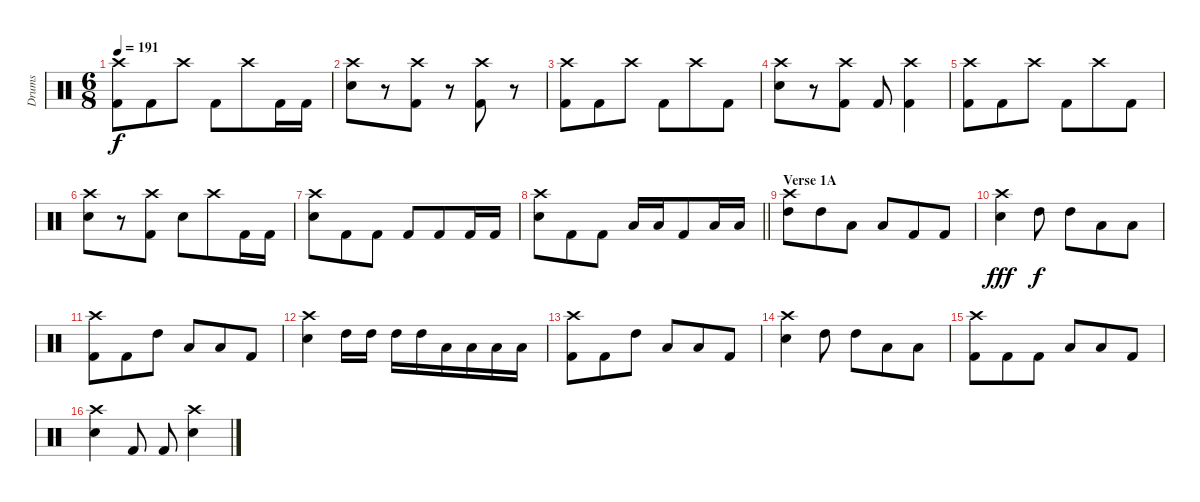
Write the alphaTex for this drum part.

\track ("Drums" "Drums") {instrument percussion}
\staff {score}
\articulation defaults
\ts (6 8)
\tempo 191
\clef neutral
\ks c
("Crash high (hit)" "Kick (hit) 2").8{dy f} "Kick (hit) 2".8 "Crash high (hit)".8 "Kick (hit) 2".8 "Crash high (hit)".8 "Kick (hit) 2".16 "Kick (hit) 2".16 |
("Crash high (hit)" "Snare (hit) 2").8 r.8 ("Crash high (hit)" "Kick (hit) 2").8 r.8 ("Crash high (hit)" "Kick (hit) 2").8 r.8 |
("Crash high (hit)" "Kick (hit) 2").8 "Kick (hit) 2".8 "Crash high (hit)".8 "Kick (hit) 2".8 "Crash high (hit)".8 "Kick (hit) 2".8 |
("Crash high (hit)" "Snare (hit) 2").8 r.8 ("Crash high (hit)" "Kick (hit) 2").8 "Kick (hit) 2".8 ("Crash high (hit)" "Kick (hit) 2").4 |
("Crash high (hit)" "Kick (hit) 2").8 "Kick (hit) 2".8 "Crash high (hit)".8 "Kick (hit) 2".8 "Crash high (hit)".8 "Kick (hit) 2".8 |
("Crash high (hit)" "Snare (hit) 2").8 r.8 ("Crash high (hit)" "Kick (hit) 2").8 "Snare (hit) 2".8 "Crash high (hit)".8 "Kick (hit) 2".16 "Kick (hit) 2".16 |
("Crash high (hit)" "Snare (hit) 2").8 "Kick (hit) 2".8 "Kick (hit) 2".8 "Kick (hit) 2".8 "Kick (hit) 2".8 "Kick (hit) 2".16 "Kick (hit) 2".16 |
\barLineRight lightlight
("Crash high (hit)" "Snare (hit) 2").8 "Kick (hit) 2".8 "Kick (hit) 2".8 "Low Tom (hit)".16 "Low Tom (hit)".16 "Kick (hit) 2".8 "Low Tom (hit)".16 "Low Tom (hit)".16 |
\section ("" "Verse 1A")
("Crash high (hit)" "High Tom (hit)").8 "High Tom (hit)".8 "Low Tom (hit)".8 "Low Floor Tom (hit)".8 "Kick (hit) 2".8 "Kick (hit) 2".8 |
("Crash high (hit)" "Snare (hit) 2").4{dy fff} "High Tom (hit)".8{dy f} "High Tom (hit)".8 "Low Tom (hit)".8 "Low Tom (hit)".8 |
("Crash high (hit)" "Kick (hit) 2").8 "Kick (hit) 2".8 "High Tom (hit)".8 "Low Tom (hit)".8 "Low Floor Tom (hit)".8 "Kick (hit) 2".8 |
("Crash high (hit)" "Snare (hit) 2").4 "High Tom (hit)".16 "High Tom (hit)".16 "High Tom (hit)".16 "High Tom (hit)".16 "Low Tom (hit)".16 "Low Tom (hit)".16 "Low Tom (hit)".16 "Low Tom (hit)".16 |
("Crash high (hit)" "Kick (hit) 2").8 "Kick (hit) 2".8 "High Tom (hit)".8 "Low Tom (hit)".8 "Low Floor Tom (hit)".8 "Kick (hit) 2".8 |
("Crash high (hit)" "Snare (hit) 2").4 "High Tom (hit)".8 "High Tom (hit)".8 "Low Tom (hit)".8 "Low Floor Tom (hit)".8 |
("Crash high (hit)" "Kick (hit) 2").8 "Kick (hit) 2".8 "Kick (hit) 2".8 "Low Tom (hit)".8 "Low Floor Tom (hit)".8 "Kick (hit) 2".8 |
("Crash high (hit)" "Snare (hit) 2").4 "Kick (hit) 2".8 "Kick (hit) 2".8 ("Crash high (hit)" "Snare (hit) 2").4
